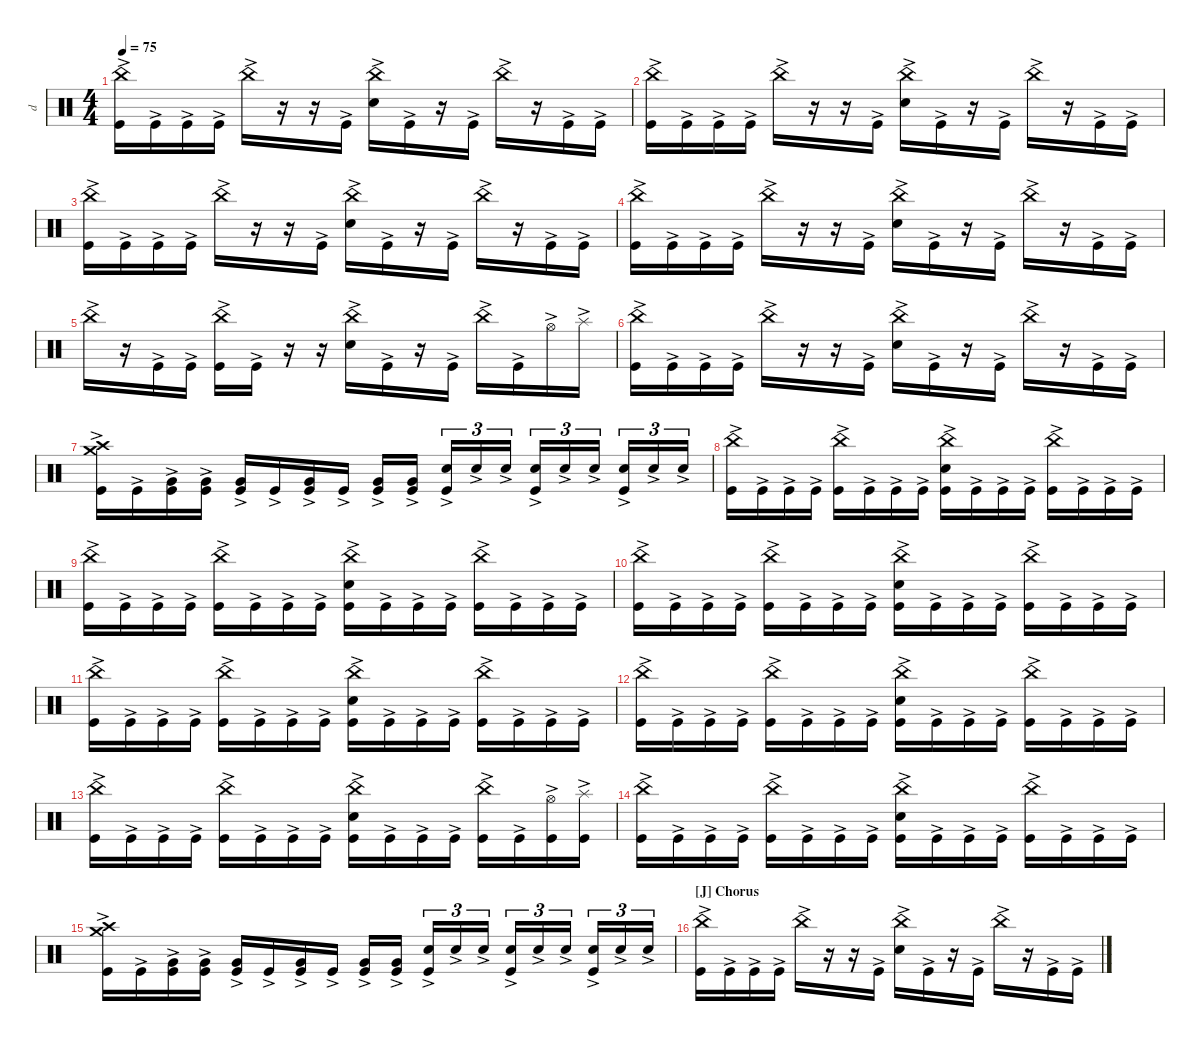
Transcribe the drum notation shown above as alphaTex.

\defaultSystemsLayout 4
\hideDynamics
\bracketExtendMode nobrackets
\otherSystemsTrackNameOrientation horizontal
\track ("Drumkit" "d") {instrument percussion}
\staff {score}
\articulation defaults
\ts (4 4)
\tempo 75
\clef neutral
\ks c
("China (hit)"{ac} "Kick (hit)"{ac}).16{dy mf} "Kick (hit)"{ac}.16 "Kick (hit)"{ac}.16 "Kick (hit)"{ac}.16 "China (hit)"{ac}.16 r.16 r.16 "Kick (hit)"{ac}.16 ("China (hit)"{ac} "Snare (hit) 2"{ac}).16 "Kick (hit)"{ac}.16 r.16 "Kick (hit)"{ac}.16 "China (hit)"{ac}.16 r.16 "Kick (hit)"{ac}.16 "Kick (hit)"{ac}.16 |
("China (hit)"{ac} "Kick (hit)"{ac}).16 "Kick (hit)"{ac}.16 "Kick (hit)"{ac}.16 "Kick (hit)"{ac}.16 "China (hit)"{ac}.16 r.16 r.16 "Kick (hit)"{ac}.16 ("China (hit)"{ac} "Snare (hit) 2"{ac}).16 "Kick (hit)"{ac}.16 r.16 "Kick (hit)"{ac}.16 "China (hit)"{ac}.16 r.16 "Kick (hit)"{ac}.16 "Kick (hit)"{ac}.16 |
("China (hit)"{ac} "Kick (hit)"{ac}).16 "Kick (hit)"{ac}.16 "Kick (hit)"{ac}.16 "Kick (hit)"{ac}.16 "China (hit)"{ac}.16 r.16 r.16 "Kick (hit)"{ac}.16 ("China (hit)"{ac} "Snare (hit) 2"{ac}).16 "Kick (hit)"{ac}.16 r.16 "Kick (hit)"{ac}.16 "China (hit)"{ac}.16 r.16 "Kick (hit)"{ac}.16 "Kick (hit)"{ac}.16 |
("China (hit)"{ac} "Kick (hit)"{ac}).16 "Kick (hit)"{ac}.16 "Kick (hit)"{ac}.16 "Kick (hit)"{ac}.16 "China (hit)"{ac}.16 r.16 r.16 "Kick (hit)"{ac}.16 ("China (hit)"{ac} "Snare (hit) 2"{ac}).16 "Kick (hit)"{ac}.16 r.16 "Kick (hit)"{ac}.16 "China (hit)"{ac}.16 r.16 "Kick (hit)"{ac}.16 "Kick (hit)"{ac}.16 |
"China (hit)"{ac}.16 r.16 "Kick (hit)"{ac}.16 "Kick (hit)"{ac}.16 ("China (hit)"{ac} "Kick (hit)"{ac}).16 "Kick (hit)"{ac}.16 r.16 r.16 ("China (hit)"{ac} "Snare (hit) 2"{ac}).16 "Kick (hit)"{ac}.16 r.16 "Kick (hit)"{ac}.16 "China (hit)"{ac}.16 "Kick (hit)"{ac}.16 "Hi-Hat (open)"{ac}.16 "Splash (hit)"{ac}.16 |
("China (hit)"{ac} "Kick (hit)"{ac}).16 "Kick (hit)"{ac}.16 "Kick (hit)"{ac}.16 "Kick (hit)"{ac}.16 "China (hit)"{ac}.16 r.16 r.16 "Kick (hit)"{ac}.16 ("China (hit)"{ac} "Snare (hit) 2"{ac}).16 "Kick (hit)"{ac}.16 r.16 "Kick (hit)"{ac}.16 "China (hit)"{ac}.16 r.16 "Kick (hit)"{ac}.16 "Kick (hit)"{ac}.16 |
("Crash high (hit)"{ac} "Crash medium (hit)"{ac} "Kick (hit)"{ac}).16 "Kick (hit)"{ac}.16 ("Very Low Tom (hit)"{ac} "Kick (hit)"{ac}).16 ("Very Low Tom (hit)"{ac} "Kick (hit)"{ac}).16 ("Very Low Tom (hit)"{ac} "Kick (hit)"{ac}).16 "Kick (hit)"{ac}.16 ("Very Low Tom (hit)"{ac} "Kick (hit)"{ac}).16 "Kick (hit)"{ac}.16 ("Very Low Tom (hit)"{ac} "Kick (hit)"{ac}).16 ("Very Low Tom (hit)"{ac} "Kick (hit)"{ac}).16 ("Snare (hit) 2"{ac} "Kick (hit)"{ac}).16{tu (3 2)} "Snare (hit) 2"{ac}.16{tu (3 2)} "Snare (hit) 2"{ac}.16{tu (3 2)} ("Snare (hit) 2"{ac} "Kick (hit)"{ac}).16{tu (3 2)} "Snare (hit) 2"{ac}.16{tu (3 2)} "Snare (hit) 2"{ac}.16{tu (3 2)} ("Snare (hit) 2"{ac} "Kick (hit)"{ac}).16{tu (3 2)} "Snare (hit) 2"{ac}.16{tu (3 2)} "Snare (hit) 2"{ac}.16{tu (3 2)} |
("China (hit)"{ac} "Kick (hit)"{ac}).16 "Kick (hit)"{ac}.16 "Kick (hit)"{ac}.16 "Kick (hit)"{ac}.16 ("China (hit)"{ac} "Kick (hit)"{ac}).16 "Kick (hit)"{ac}.16 "Kick (hit)"{ac}.16 "Kick (hit)"{ac}.16 ("China (hit)"{ac} "Snare (hit) 2"{ac} "Kick (hit)"{ac}).16 "Kick (hit)"{ac}.16 "Kick (hit)"{ac}.16 "Kick (hit)"{ac}.16 ("China (hit)"{ac} "Kick (hit)"{ac}).16 "Kick (hit)"{ac}.16 "Kick (hit)"{ac}.16 "Kick (hit)"{ac}.16 |
("China (hit)"{ac} "Kick (hit)"{ac}).16 "Kick (hit)"{ac}.16 "Kick (hit)"{ac}.16 "Kick (hit)"{ac}.16 ("China (hit)"{ac} "Kick (hit)"{ac}).16 "Kick (hit)"{ac}.16 "Kick (hit)"{ac}.16 "Kick (hit)"{ac}.16 ("China (hit)"{ac} "Snare (hit) 2"{ac} "Kick (hit)"{ac}).16 "Kick (hit)"{ac}.16 "Kick (hit)"{ac}.16 "Kick (hit)"{ac}.16 ("China (hit)"{ac} "Kick (hit)"{ac}).16 "Kick (hit)"{ac}.16 "Kick (hit)"{ac}.16 "Kick (hit)"{ac}.16 |
("China (hit)"{ac} "Kick (hit)"{ac}).16 "Kick (hit)"{ac}.16 "Kick (hit)"{ac}.16 "Kick (hit)"{ac}.16 ("China (hit)"{ac} "Kick (hit)"{ac}).16 "Kick (hit)"{ac}.16 "Kick (hit)"{ac}.16 "Kick (hit)"{ac}.16 ("China (hit)"{ac} "Snare (hit) 2"{ac} "Kick (hit)"{ac}).16 "Kick (hit)"{ac}.16 "Kick (hit)"{ac}.16 "Kick (hit)"{ac}.16 ("China (hit)"{ac} "Kick (hit)"{ac}).16 "Kick (hit)"{ac}.16 "Kick (hit)"{ac}.16 "Kick (hit)"{ac}.16 |
("China (hit)"{ac} "Kick (hit)"{ac}).16 "Kick (hit)"{ac}.16 "Kick (hit)"{ac}.16 "Kick (hit)"{ac}.16 ("China (hit)"{ac} "Kick (hit)"{ac}).16 "Kick (hit)"{ac}.16 "Kick (hit)"{ac}.16 "Kick (hit)"{ac}.16 ("China (hit)"{ac} "Snare (hit) 2"{ac} "Kick (hit)"{ac}).16 "Kick (hit)"{ac}.16 "Kick (hit)"{ac}.16 "Kick (hit)"{ac}.16 ("China (hit)"{ac} "Kick (hit)"{ac}).16 "Kick (hit)"{ac}.16 "Kick (hit)"{ac}.16 "Kick (hit)"{ac}.16 |
("China (hit)"{ac} "Kick (hit)"{ac}).16 "Kick (hit)"{ac}.16 "Kick (hit)"{ac}.16 "Kick (hit)"{ac}.16 ("China (hit)"{ac} "Kick (hit)"{ac}).16 "Kick (hit)"{ac}.16 "Kick (hit)"{ac}.16 "Kick (hit)"{ac}.16 ("China (hit)"{ac} "Snare (hit) 2"{ac} "Kick (hit)"{ac}).16 "Kick (hit)"{ac}.16 "Kick (hit)"{ac}.16 "Kick (hit)"{ac}.16 ("China (hit)"{ac} "Kick (hit)"{ac}).16 "Kick (hit)"{ac}.16 "Kick (hit)"{ac}.16 "Kick (hit)"{ac}.16 |
("China (hit)"{ac} "Kick (hit)"{ac}).16 "Kick (hit)"{ac}.16 "Kick (hit)"{ac}.16 "Kick (hit)"{ac}.16 ("China (hit)"{ac} "Kick (hit)"{ac}).16 "Kick (hit)"{ac}.16 "Kick (hit)"{ac}.16 "Kick (hit)"{ac}.16 ("China (hit)"{ac} "Snare (hit) 2"{ac} "Kick (hit)"{ac}).16 "Kick (hit)"{ac}.16 "Kick (hit)"{ac}.16 "Kick (hit)"{ac}.16 ("China (hit)"{ac} "Kick (hit)"{ac}).16 "Kick (hit)"{ac}.16 ("Hi-Hat (open)"{ac} "Kick (hit)"{ac}).16 ("Splash (hit)"{ac} "Kick (hit)"{ac}).16 |
("China (hit)"{ac} "Kick (hit)"{ac}).16 "Kick (hit)"{ac}.16 "Kick (hit)"{ac}.16 "Kick (hit)"{ac}.16 ("China (hit)"{ac} "Kick (hit)"{ac}).16 "Kick (hit)"{ac}.16 "Kick (hit)"{ac}.16 "Kick (hit)"{ac}.16 ("China (hit)"{ac} "Snare (hit) 2"{ac} "Kick (hit)"{ac}).16 "Kick (hit)"{ac}.16 "Kick (hit)"{ac}.16 "Kick (hit)"{ac}.16 ("China (hit)"{ac} "Kick (hit)"{ac}).16 "Kick (hit)"{ac}.16 "Kick (hit)"{ac}.16 "Kick (hit)"{ac}.16 |
("Crash high (hit)"{ac} "Crash medium (hit)"{ac} "Kick (hit)"{ac}).16 "Kick (hit)"{ac}.16 ("Very Low Tom (hit)"{ac} "Kick (hit)"{ac}).16 ("Very Low Tom (hit)"{ac} "Kick (hit)"{ac}).16 ("Very Low Tom (hit)"{ac} "Kick (hit)"{ac}).16 "Kick (hit)"{ac}.16 ("Very Low Tom (hit)"{ac} "Kick (hit)"{ac}).16 "Kick (hit)"{ac}.16 ("Very Low Tom (hit)"{ac} "Kick (hit)"{ac}).16 ("Very Low Tom (hit)"{ac} "Kick (hit)"{ac}).16 ("Snare (hit) 2"{ac} "Kick (hit)"{ac}).16{tu (3 2)} "Snare (hit) 2"{ac}.16{tu (3 2)} "Snare (hit) 2"{ac}.16{tu (3 2)} ("Snare (hit) 2"{ac} "Kick (hit)"{ac}).16{tu (3 2)} "Snare (hit) 2"{ac}.16{tu (3 2)} "Snare (hit) 2"{ac}.16{tu (3 2)} ("Snare (hit) 2"{ac} "Kick (hit)"{ac}).16{tu (3 2)} "Snare (hit) 2"{ac}.16{tu (3 2)} "Snare (hit) 2"{ac}.16{tu (3 2)} |
\section ("J" "Chorus")
("China (hit)"{ac} "Kick (hit)"{ac}).16 "Kick (hit)"{ac}.16 "Kick (hit)"{ac}.16 "Kick (hit)"{ac}.16 "China (hit)"{ac}.16 r.16 r.16 "Kick (hit)"{ac}.16 ("China (hit)"{ac} "Snare (hit) 2"{ac}).16 "Kick (hit)"{ac}.16 r.16 "Kick (hit)"{ac}.16 "China (hit)"{ac}.16 r.16 "Kick (hit)"{ac}.16 "Kick (hit)"{ac}.16
